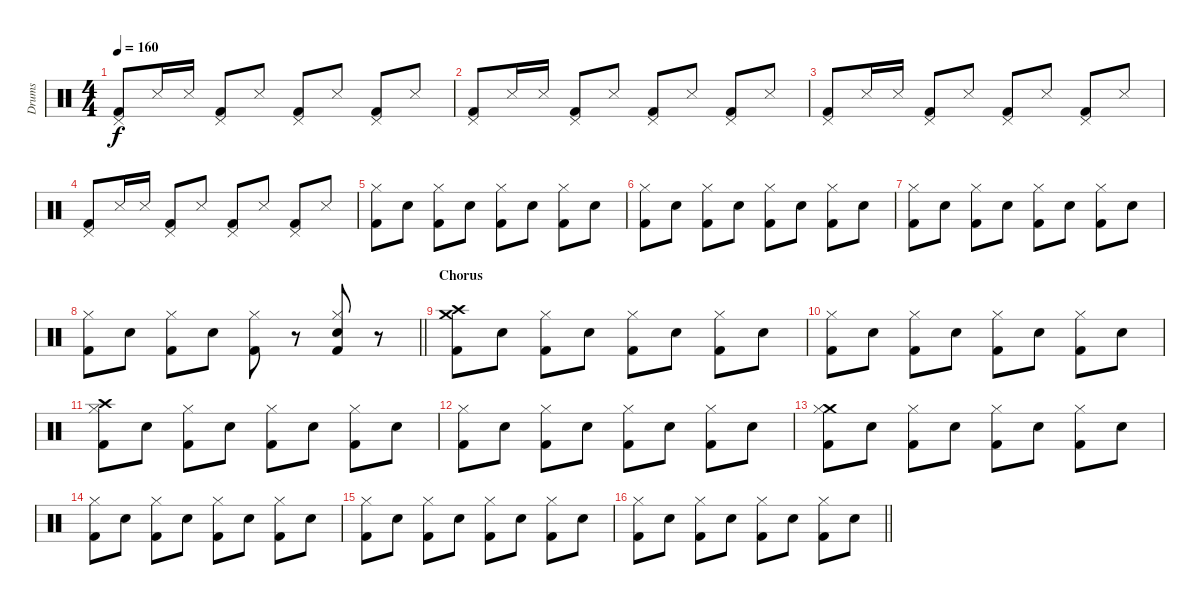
\track ("Drums" "Drums") {instrument percussion}
\staff {score}
\articulation defaults
\ts (4 4)
\tempo 160
\clef neutral
\ks c
("Pedal Hi-Hat (hit)" "Kick (hit) 2").8{dy f} "Snare (side stick) 3".16 "Snare (side stick) 3".16 ("Pedal Hi-Hat (hit)" "Kick (hit) 2").8 "Snare (side stick) 3".8 ("Pedal Hi-Hat (hit)" "Kick (hit) 2").8 "Snare (side stick) 3".8 ("Pedal Hi-Hat (hit)" "Kick (hit) 2").8 "Snare (side stick) 3".8 |
("Pedal Hi-Hat (hit)" "Kick (hit) 2").8 "Snare (side stick) 3".16 "Snare (side stick) 3".16 ("Pedal Hi-Hat (hit)" "Kick (hit) 2").8 "Snare (side stick) 3".8 ("Pedal Hi-Hat (hit)" "Kick (hit) 2").8 "Snare (side stick) 3".8 ("Pedal Hi-Hat (hit)" "Kick (hit) 2").8 "Snare (side stick) 3".8 |
("Pedal Hi-Hat (hit)" "Kick (hit) 2").8 "Snare (side stick) 3".16 "Snare (side stick) 3".16 ("Pedal Hi-Hat (hit)" "Kick (hit) 2").8 "Snare (side stick) 3".8 ("Pedal Hi-Hat (hit)" "Kick (hit) 2").8 "Snare (side stick) 3".8 ("Pedal Hi-Hat (hit)" "Kick (hit) 2").8 "Snare (side stick) 3".8 |
("Pedal Hi-Hat (hit)" "Kick (hit) 2").8 "Snare (side stick) 3".16 "Snare (side stick) 3".16 ("Pedal Hi-Hat (hit)" "Kick (hit) 2").8 "Snare (side stick) 3".8 ("Pedal Hi-Hat (hit)" "Kick (hit) 2").8 "Snare (side stick) 3".8 ("Pedal Hi-Hat (hit)" "Kick (hit) 2").8 "Snare (side stick) 3".8 |
("Hi-Hat (closed)" "Kick (hit) 2").8 "Snare (hit) 2".8 ("Hi-Hat (closed)" "Kick (hit) 2").8 "Snare (hit) 2".8 ("Hi-Hat (closed)" "Kick (hit) 2").8 "Snare (hit) 2".8 ("Hi-Hat (closed)" "Kick (hit) 2").8 "Snare (hit) 2".8 |
("Hi-Hat (closed)" "Kick (hit) 2").8 "Snare (hit) 2".8 ("Hi-Hat (closed)" "Kick (hit) 2").8 "Snare (hit) 2".8 ("Hi-Hat (closed)" "Kick (hit) 2").8 "Snare (hit) 2".8 ("Hi-Hat (closed)" "Kick (hit) 2").8 "Snare (hit) 2".8 |
("Hi-Hat (closed)" "Kick (hit) 2").8 "Snare (hit) 2".8 ("Hi-Hat (closed)" "Kick (hit) 2").8 "Snare (hit) 2".8 ("Hi-Hat (closed)" "Kick (hit) 2").8 "Snare (hit) 2".8 ("Hi-Hat (closed)" "Kick (hit) 2").8 "Snare (hit) 2".8 |
\barLineRight lightlight
("Hi-Hat (closed)" "Kick (hit) 2").8 "Snare (hit) 2".8 ("Hi-Hat (closed)" "Kick (hit) 2").8 "Snare (hit) 2".8 ("Hi-Hat (closed)" "Kick (hit) 2").8 r.8 ("Hi-Hat (closed)" "Snare (hit) 2" "Kick (hit) 2").8 r.8 |
\section ("" "Chorus")
("Crash high (hit)" "Crash medium (hit)" "Kick (hit) 2").8 "Snare (hit) 2".8 ("Hi-Hat (closed)" "Kick (hit) 2").8 "Snare (hit) 2".8 ("Hi-Hat (closed)" "Kick (hit) 2").8 "Snare (hit) 2".8 ("Hi-Hat (closed)" "Kick (hit) 2").8 "Snare (hit) 2".8 |
("Hi-Hat (closed)" "Kick (hit) 2").8 "Snare (hit) 2".8 ("Hi-Hat (closed)" "Kick (hit) 2").8 "Snare (hit) 2".8 ("Hi-Hat (closed)" "Kick (hit) 2").8 "Snare (hit) 2".8 ("Hi-Hat (closed)" "Kick (hit) 2").8 "Snare (hit) 2".8 |
("Crash high (hit)" "Hi-Hat (closed)" "Kick (hit) 2").8 "Snare (hit) 2".8 ("Hi-Hat (closed)" "Kick (hit) 2").8 "Snare (hit) 2".8 ("Hi-Hat (closed)" "Kick (hit) 2").8 "Snare (hit) 2".8 ("Hi-Hat (closed)" "Kick (hit) 2").8 "Snare (hit) 2".8 |
("Hi-Hat (closed)" "Kick (hit) 2").8 "Snare (hit) 2".8 ("Hi-Hat (closed)" "Kick (hit) 2").8 "Snare (hit) 2".8 ("Hi-Hat (closed)" "Kick (hit) 2").8 "Snare (hit) 2".8 ("Hi-Hat (closed)" "Kick (hit) 2").8 "Snare (hit) 2".8 |
("Crash medium (hit)" "Hi-Hat (closed)" "Kick (hit) 2").8 "Snare (hit) 2".8 ("Hi-Hat (closed)" "Kick (hit) 2").8 "Snare (hit) 2".8 ("Hi-Hat (closed)" "Kick (hit) 2").8 "Snare (hit) 2".8 ("Hi-Hat (closed)" "Kick (hit) 2").8 "Snare (hit) 2".8 |
("Hi-Hat (closed)" "Kick (hit) 2").8 "Snare (hit) 2".8 ("Hi-Hat (closed)" "Kick (hit) 2").8 "Snare (hit) 2".8 ("Hi-Hat (closed)" "Kick (hit) 2").8 "Snare (hit) 2".8 ("Hi-Hat (closed)" "Kick (hit) 2").8 "Snare (hit) 2".8 |
("Hi-Hat (closed)" "Kick (hit) 2").8 "Snare (hit) 2".8 ("Hi-Hat (closed)" "Kick (hit) 2").8 "Snare (hit) 2".8 ("Hi-Hat (closed)" "Kick (hit) 2").8 "Snare (hit) 2".8 ("Hi-Hat (closed)" "Kick (hit) 2").8 "Snare (hit) 2".8 |
\barLineRight lightlight
("Hi-Hat (closed)" "Kick (hit) 2").8 "Snare (hit) 2".8 ("Hi-Hat (closed)" "Kick (hit) 2").8 "Snare (hit) 2".8 ("Hi-Hat (closed)" "Kick (hit) 2").8 "Snare (hit) 2".8 ("Hi-Hat (closed)" "Kick (hit) 2").8 "Snare (hit) 2".8
